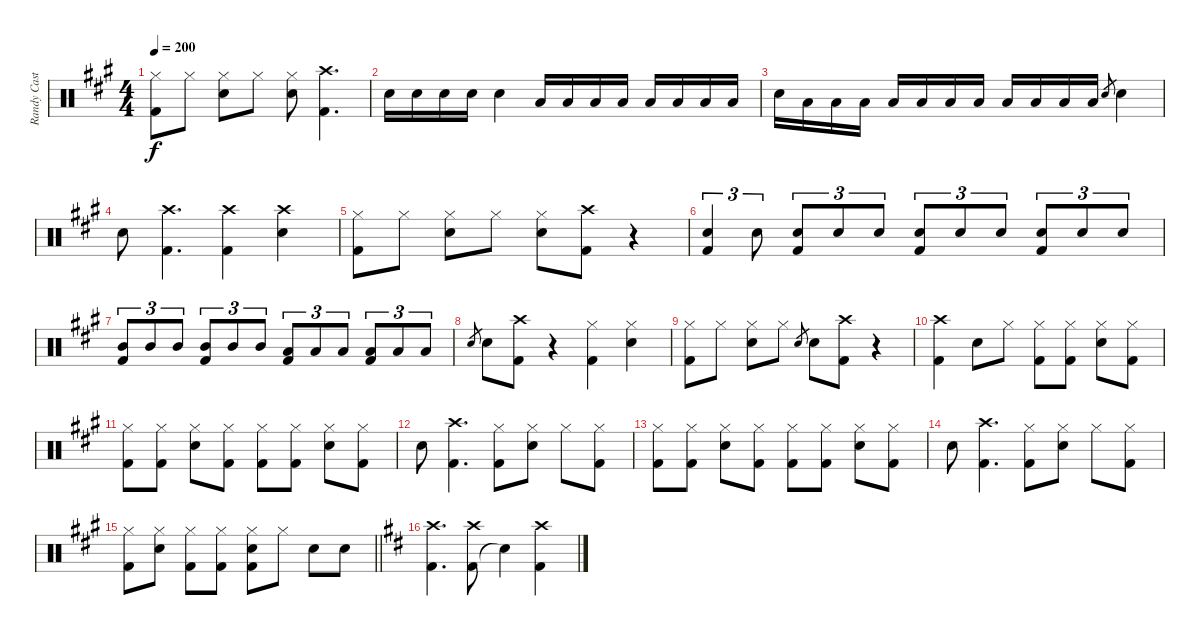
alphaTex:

\track ("Randy Castillo" "Randy Cast") {instrument percussion}
\staff {score}
\articulation defaults
\ts (4 4)
\tempo 200
\clef neutral
\ks a
("Hi-Hat (closed)" "Kick (hit) 2").8{dy f} "Hi-Hat (closed)".8 ("Hi-Hat (closed)" "Snare (hit) 2").8 "Hi-Hat (closed)".8 ("Hi-Hat (closed)" "Snare (hit) 2").8 ("Kick (hit) 2" "Crash high (hit)").4{d} |
"Snare (hit) 2".16 "Snare (hit) 2".16 "Snare (hit) 2".16 "Snare (hit) 2".16 "Snare (hit) 2".4 "Low Tom (hit)".16 "Low Tom (hit)".16 "Low Tom (hit)".16 "Low Tom (hit)".16 "Low Tom (hit)".16 "Low Tom (hit)".16 "Low Tom (hit)".16 "Low Tom (hit)".16 |
"Snare (hit) 2".16 "Low Tom (hit)".16 "Low Tom (hit)".16 "Low Tom (hit)".16 "Low Tom (hit)".16 "Low Tom (hit)".16 "Low Tom (hit)".16 "Low Tom (hit)".16 "Low Tom (hit)".16 "Low Tom (hit)".16 "Low Tom (hit)".16 "Low Tom (hit)".16 "Snare (hit) 2".8{gr} "Snare (hit) 2".4 |
"Snare (hit) 2".8 ("Kick (hit) 2" "Crash high (hit)").4{d} ("Kick (hit) 2" "Crash high (hit)").4 ("Snare (hit) 2" "Crash high (hit)").4 |
("Hi-Hat (closed)" "Kick (hit) 2").8 "Hi-Hat (closed)".8 ("Hi-Hat (closed)" "Snare (hit) 2").8 "Hi-Hat (closed)".8 ("Hi-Hat (closed)" "Snare (hit) 2").8 ("Kick (hit) 2" "Crash high (hit)").8 r.4 |
("Snare (hit) 2" "Kick (hit) 2").4{tu (3 2)} "Snare (hit) 2".8{tu (3 2)} ("Snare (hit) 2" "Kick (hit) 2").8{tu (3 2)} "Snare (hit) 2".8{tu (3 2)} "Snare (hit) 2".8{tu (3 2)} ("Snare (hit) 2" "Kick (hit) 2").8{tu (3 2)} "Snare (hit) 2".8{tu (3 2)} "Snare (hit) 2".8{tu (3 2)} ("Snare (hit) 2" "Kick (hit) 2").8{tu (3 2)} "Snare (hit) 2".8{tu (3 2)} "Snare (hit) 2".8{tu (3 2)} |
("Mid Tom (hit)" "Kick (hit) 2").8{tu (3 2)} "Mid Tom (hit)".8{tu (3 2)} "Mid Tom (hit)".8{tu (3 2)} ("Mid Tom (hit)" "Kick (hit) 2").8{tu (3 2)} "Mid Tom (hit)".8{tu (3 2)} "Mid Tom (hit)".8{tu (3 2)} ("Low Tom (hit)" "Kick (hit) 2").8{tu (3 2)} "Low Tom (hit)".8{tu (3 2)} "Low Tom (hit)".8{tu (3 2)} ("Low Tom (hit)" "Kick (hit) 2").8{tu (3 2)} "Low Tom (hit)".8{tu (3 2)} "Low Tom (hit)".8{tu (3 2)} |
"Snare (hit) 2".8{gr} "Snare (hit) 2".8 ("Kick (hit) 2" "Crash high (hit)").8 r.4 ("Hi-Hat (closed)" "Kick (hit) 2").4 ("Hi-Hat (closed)" "Snare (hit) 2").4 |
("Hi-Hat (closed)" "Kick (hit) 2").8 "Hi-Hat (closed)".8 ("Hi-Hat (closed)" "Snare (hit) 2").8 "Hi-Hat (closed)".8 "Snare (hit) 2".8{gr} "Snare (hit) 2".8 ("Kick (hit) 2" "Crash high (hit)").8 r.4 |
("Kick (hit) 2" "Crash high (hit)").4 "Snare (hit) 2".8 "Hi-Hat (closed)".8 ("Hi-Hat (closed)" "Kick (hit) 2").8 ("Hi-Hat (closed)" "Kick (hit) 2").8 ("Hi-Hat (closed)" "Snare (hit) 2").8 ("Hi-Hat (closed)" "Kick (hit) 2").8 |
("Hi-Hat (closed)" "Kick (hit) 2").8 ("Hi-Hat (closed)" "Kick (hit) 2").8 ("Hi-Hat (closed)" "Snare (hit) 2").8 ("Hi-Hat (closed)" "Kick (hit) 2").8 ("Hi-Hat (closed)" "Kick (hit) 2").8 ("Hi-Hat (closed)" "Kick (hit) 2").8 ("Hi-Hat (closed)" "Snare (hit) 2").8 ("Hi-Hat (closed)" "Kick (hit) 2").8 |
"Snare (hit) 2".8 ("Kick (hit) 2" "Crash high (hit)").4{d} ("Hi-Hat (closed)" "Kick (hit) 2").8 ("Hi-Hat (closed)" "Snare (hit) 2").8 "Hi-Hat (closed)".8 ("Hi-Hat (closed)" "Kick (hit) 2").8 |
("Hi-Hat (closed)" "Kick (hit) 2").8 ("Hi-Hat (closed)" "Kick (hit) 2").8 ("Hi-Hat (closed)" "Snare (hit) 2").8 ("Hi-Hat (closed)" "Kick (hit) 2").8 ("Hi-Hat (closed)" "Kick (hit) 2").8 ("Hi-Hat (closed)" "Kick (hit) 2").8 ("Hi-Hat (closed)" "Snare (hit) 2").8 ("Hi-Hat (closed)" "Kick (hit) 2").8 |
"Snare (hit) 2".8 ("Kick (hit) 2" "Crash high (hit)").4{d} ("Hi-Hat (closed)" "Kick (hit) 2").8 ("Hi-Hat (closed)" "Snare (hit) 2").8 "Hi-Hat (closed)".8 ("Hi-Hat (closed)" "Kick (hit) 2").8 |
\barLineRight lightlight
("Hi-Hat (closed)" "Kick (hit) 2").8 ("Hi-Hat (closed)" "Snare (hit) 2").8 ("Hi-Hat (closed)" "Kick (hit) 2").8 ("Hi-Hat (closed)" "Kick (hit) 2").8 ("Hi-Hat (closed)" "Snare (hit) 2" "Kick (hit) 2").8 "Hi-Hat (closed)".8 "Snare (hit) 2".8 "Snare (hit) 2".8 |
\ks d
("Kick (hit) 2" "Crash high (hit)").4{d} ("Kick (hit) 2" "Crash high (hit)").8 "Snare (hit)"{t}.4 ("Kick (hit) 2" "Crash high (hit)").4
